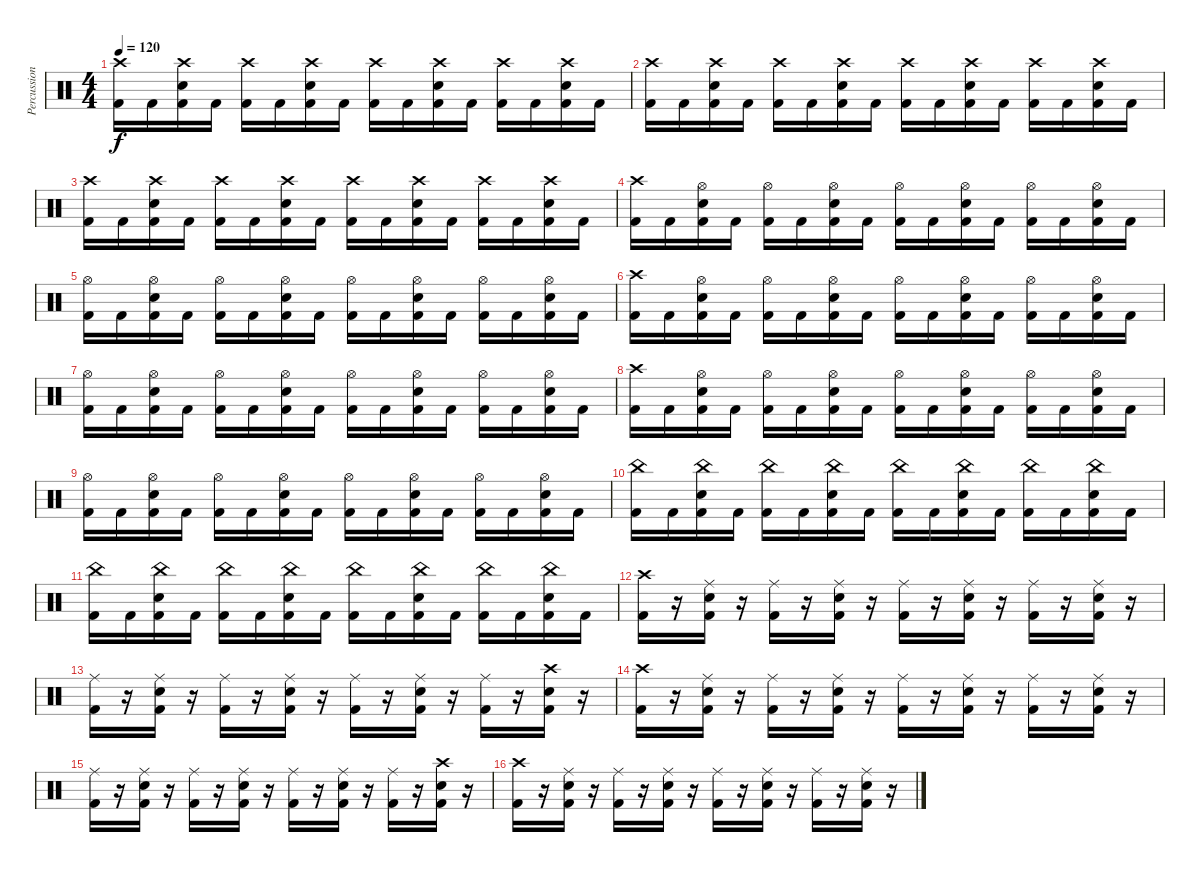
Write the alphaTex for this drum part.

\track ("Percussion" "Percussion") {instrument percussion}
\staff {score}
\articulation defaults
\ts (4 4)
\tempo 120
\clef neutral
\ks c
("Crash high (hit)" "Kick (hit) 2").16{dy f} "Kick (hit) 2".16 ("Crash high (hit)" "Snare (hit) 2" "Kick (hit) 2").16 "Kick (hit) 2".16 ("Crash high (hit)" "Kick (hit) 2").16 "Kick (hit) 2".16 ("Crash high (hit)" "Snare (hit) 2" "Kick (hit) 2").16 "Kick (hit) 2".16 ("Crash high (hit)" "Kick (hit) 2").16 "Kick (hit) 2".16 ("Crash high (hit)" "Snare (hit) 2" "Kick (hit) 2").16 "Kick (hit) 2".16 ("Crash high (hit)" "Kick (hit) 2").16 "Kick (hit) 2".16 ("Crash high (hit)" "Snare (hit) 2" "Kick (hit) 2").16 "Kick (hit) 2".16 |
("Crash high (hit)" "Kick (hit) 2").16 "Kick (hit) 2".16 ("Crash high (hit)" "Snare (hit) 2" "Kick (hit) 2").16 "Kick (hit) 2".16 ("Crash high (hit)" "Kick (hit) 2").16 "Kick (hit) 2".16 ("Crash high (hit)" "Snare (hit) 2" "Kick (hit) 2").16 "Kick (hit) 2".16 ("Crash high (hit)" "Kick (hit) 2").16 "Kick (hit) 2".16 ("Crash high (hit)" "Snare (hit) 2" "Kick (hit) 2").16 "Kick (hit) 2".16 ("Crash high (hit)" "Kick (hit) 2").16 "Kick (hit) 2".16 ("Crash high (hit)" "Snare (hit) 2" "Kick (hit) 2").16 "Kick (hit) 2".16 |
("Crash high (hit)" "Kick (hit) 2").16 "Kick (hit) 2".16 ("Crash high (hit)" "Snare (hit) 2" "Kick (hit) 2").16 "Kick (hit) 2".16 ("Crash high (hit)" "Kick (hit) 2").16 "Kick (hit) 2".16 ("Crash high (hit)" "Snare (hit) 2" "Kick (hit) 2").16 "Kick (hit) 2".16 ("Crash high (hit)" "Kick (hit) 2").16 "Kick (hit) 2".16 ("Crash high (hit)" "Snare (hit) 2" "Kick (hit) 2").16 "Kick (hit) 2".16 ("Crash high (hit)" "Kick (hit) 2").16 "Kick (hit) 2".16 ("Crash high (hit)" "Snare (hit) 2" "Kick (hit) 2").16 "Kick (hit) 2".16 |
("Crash high (hit)" "Kick (hit) 2").16 "Kick (hit) 2".16 ("Hi-Hat (open)" "Snare (hit) 2" "Kick (hit) 2").16 "Kick (hit) 2".16 ("Hi-Hat (open)" "Kick (hit) 2").16 "Kick (hit) 2".16 ("Hi-Hat (open)" "Snare (hit) 2" "Kick (hit) 2").16 "Kick (hit) 2".16 ("Hi-Hat (open)" "Kick (hit) 2").16 "Kick (hit) 2".16 ("Hi-Hat (open)" "Snare (hit) 2" "Kick (hit) 2").16 "Kick (hit) 2".16 ("Hi-Hat (open)" "Kick (hit) 2").16 "Kick (hit) 2".16 ("Hi-Hat (open)" "Snare (hit) 2" "Kick (hit) 2").16 "Kick (hit) 2".16 |
("Hi-Hat (open)" "Kick (hit) 2").16 "Kick (hit) 2".16 ("Hi-Hat (open)" "Snare (hit) 2" "Kick (hit) 2").16 "Kick (hit) 2".16 ("Hi-Hat (open)" "Kick (hit) 2").16 "Kick (hit) 2".16 ("Hi-Hat (open)" "Snare (hit) 2" "Kick (hit) 2").16 "Kick (hit) 2".16 ("Hi-Hat (open)" "Kick (hit) 2").16 "Kick (hit) 2".16 ("Hi-Hat (open)" "Snare (hit) 2" "Kick (hit) 2").16 "Kick (hit) 2".16 ("Hi-Hat (open)" "Kick (hit) 2").16 "Kick (hit) 2".16 ("Hi-Hat (open)" "Snare (hit) 2" "Kick (hit) 2").16 "Kick (hit) 2".16 |
("Crash high (hit)" "Kick (hit) 2").16 "Kick (hit) 2".16 ("Hi-Hat (open)" "Snare (hit) 2" "Kick (hit) 2").16 "Kick (hit) 2".16 ("Hi-Hat (open)" "Kick (hit) 2").16 "Kick (hit) 2".16 ("Hi-Hat (open)" "Snare (hit) 2" "Kick (hit) 2").16 "Kick (hit) 2".16 ("Hi-Hat (open)" "Kick (hit) 2").16 "Kick (hit) 2".16 ("Hi-Hat (open)" "Snare (hit) 2" "Kick (hit) 2").16 "Kick (hit) 2".16 ("Hi-Hat (open)" "Kick (hit) 2").16 "Kick (hit) 2".16 ("Hi-Hat (open)" "Snare (hit) 2" "Kick (hit) 2").16 "Kick (hit) 2".16 |
("Hi-Hat (open)" "Kick (hit) 2").16 "Kick (hit) 2".16 ("Hi-Hat (open)" "Snare (hit) 2" "Kick (hit) 2").16 "Kick (hit) 2".16 ("Hi-Hat (open)" "Kick (hit) 2").16 "Kick (hit) 2".16 ("Hi-Hat (open)" "Snare (hit) 2" "Kick (hit) 2").16 "Kick (hit) 2".16 ("Hi-Hat (open)" "Kick (hit) 2").16 "Kick (hit) 2".16 ("Hi-Hat (open)" "Snare (hit) 2" "Kick (hit) 2").16 "Kick (hit) 2".16 ("Hi-Hat (open)" "Kick (hit) 2").16 "Kick (hit) 2".16 ("Hi-Hat (open)" "Snare (hit) 2" "Kick (hit) 2").16 "Kick (hit) 2".16 |
("Crash high (hit)" "Kick (hit) 2").16 "Kick (hit) 2".16 ("Hi-Hat (open)" "Snare (hit) 2" "Kick (hit) 2").16 "Kick (hit) 2".16 ("Hi-Hat (open)" "Kick (hit) 2").16 "Kick (hit) 2".16 ("Hi-Hat (open)" "Snare (hit) 2" "Kick (hit) 2").16 "Kick (hit) 2".16 ("Hi-Hat (open)" "Kick (hit) 2").16 "Kick (hit) 2".16 ("Hi-Hat (open)" "Snare (hit) 2" "Kick (hit) 2").16 "Kick (hit) 2".16 ("Hi-Hat (open)" "Kick (hit) 2").16 "Kick (hit) 2".16 ("Hi-Hat (open)" "Snare (hit) 2" "Kick (hit) 2").16 "Kick (hit) 2".16 |
("Hi-Hat (open)" "Kick (hit) 2").16 "Kick (hit) 2".16 ("Hi-Hat (open)" "Snare (hit) 2" "Kick (hit) 2").16 "Kick (hit) 2".16 ("Hi-Hat (open)" "Kick (hit) 2").16 "Kick (hit) 2".16 ("Hi-Hat (open)" "Snare (hit) 2" "Kick (hit) 2").16 "Kick (hit) 2".16 ("Hi-Hat (open)" "Kick (hit) 2").16 "Kick (hit) 2".16 ("Hi-Hat (open)" "Snare (hit) 2" "Kick (hit) 2").16 "Kick (hit) 2".16 ("Hi-Hat (open)" "Kick (hit) 2").16 "Kick (hit) 2".16 ("Hi-Hat (open)" "Snare (hit) 2" "Kick (hit) 2").16 "Kick (hit) 2".16 |
("China (hit)" "Kick (hit) 2").16 "Kick (hit) 2".16 ("China (hit)" "Snare (hit) 2" "Kick (hit) 2").16 "Kick (hit) 2".16 ("China (hit)" "Kick (hit) 2").16 "Kick (hit) 2".16 ("China (hit)" "Snare (hit) 2" "Kick (hit) 2").16 "Kick (hit) 2".16 ("China (hit)" "Kick (hit) 2").16 "Kick (hit) 2".16 ("China (hit)" "Snare (hit) 2" "Kick (hit) 2").16 "Kick (hit) 2".16 ("China (hit)" "Kick (hit) 2").16 "Kick (hit) 2".16 ("China (hit)" "Snare (hit) 2" "Kick (hit) 2").16 "Kick (hit) 2".16 |
("China (hit)" "Kick (hit) 2").16 "Kick (hit) 2".16 ("China (hit)" "Snare (hit) 2" "Kick (hit) 2").16 "Kick (hit) 2".16 ("China (hit)" "Kick (hit) 2").16 "Kick (hit) 2".16 ("China (hit)" "Snare (hit) 2" "Kick (hit) 2").16 "Kick (hit) 2".16 ("China (hit)" "Kick (hit) 2").16 "Kick (hit) 2".16 ("China (hit)" "Snare (hit) 2" "Kick (hit) 2").16 "Kick (hit) 2".16 ("China (hit)" "Kick (hit) 2").16 "Kick (hit) 2".16 ("China (hit)" "Snare (hit) 2" "Kick (hit) 2").16 "Kick (hit) 2".16 |
("Crash high (hit)" "Kick (hit) 2").16 r.16 ("Ride (middle)" "Snare (hit) 2" "Kick (hit) 2").16 r.16 ("Ride (middle)" "Kick (hit) 2").16 r.16 ("Ride (middle)" "Snare (hit) 2" "Kick (hit) 2").16 r.16 ("Ride (middle)" "Kick (hit) 2").16 r.16 ("Ride (middle)" "Snare (hit) 2" "Kick (hit) 2").16 r.16 ("Ride (middle)" "Kick (hit) 2").16 r.16 ("Ride (middle)" "Snare (hit) 2" "Kick (hit) 2").16 r.16 |
("Ride (middle)" "Kick (hit) 2").16 r.16 ("Ride (middle)" "Snare (hit) 2" "Kick (hit) 2").16 r.16 ("Ride (middle)" "Kick (hit) 2").16 r.16 ("Ride (middle)" "Snare (hit) 2" "Kick (hit) 2").16 r.16 ("Ride (middle)" "Kick (hit) 2").16 r.16 ("Ride (middle)" "Snare (hit) 2" "Kick (hit) 2").16 r.16 ("Ride (middle)" "Kick (hit) 2").16 r.16 ("Crash high (hit)" "Snare (hit) 2" "Kick (hit) 2").16 r.16 |
("Crash high (hit)" "Kick (hit) 2").16 r.16 ("Ride (middle)" "Snare (hit) 2" "Kick (hit) 2").16 r.16 ("Ride (middle)" "Kick (hit) 2").16 r.16 ("Ride (middle)" "Snare (hit) 2" "Kick (hit) 2").16 r.16 ("Ride (middle)" "Kick (hit) 2").16 r.16 ("Ride (middle)" "Snare (hit) 2" "Kick (hit) 2").16 r.16 ("Ride (middle)" "Kick (hit) 2").16 r.16 ("Ride (middle)" "Snare (hit) 2" "Kick (hit) 2").16 r.16 |
("Ride (middle)" "Kick (hit) 2").16 r.16 ("Ride (middle)" "Snare (hit) 2" "Kick (hit) 2").16 r.16 ("Ride (middle)" "Kick (hit) 2").16 r.16 ("Ride (middle)" "Snare (hit) 2" "Kick (hit) 2").16 r.16 ("Ride (middle)" "Kick (hit) 2").16 r.16 ("Ride (middle)" "Snare (hit) 2" "Kick (hit) 2").16 r.16 ("Ride (middle)" "Kick (hit) 2").16 r.16 ("Crash high (hit)" "Snare (hit) 2" "Kick (hit) 2").16 r.16 |
("Crash high (hit)" "Kick (hit) 2").16 r.16 ("Ride (middle)" "Snare (hit) 2" "Kick (hit) 2").16 r.16 ("Ride (middle)" "Kick (hit) 2").16 r.16 ("Ride (middle)" "Snare (hit) 2" "Kick (hit) 2").16 r.16 ("Ride (middle)" "Kick (hit) 2").16 r.16 ("Ride (middle)" "Snare (hit) 2" "Kick (hit) 2").16 r.16 ("Ride (middle)" "Kick (hit) 2").16 r.16 ("Ride (middle)" "Snare (hit) 2" "Kick (hit) 2").16 r.16
